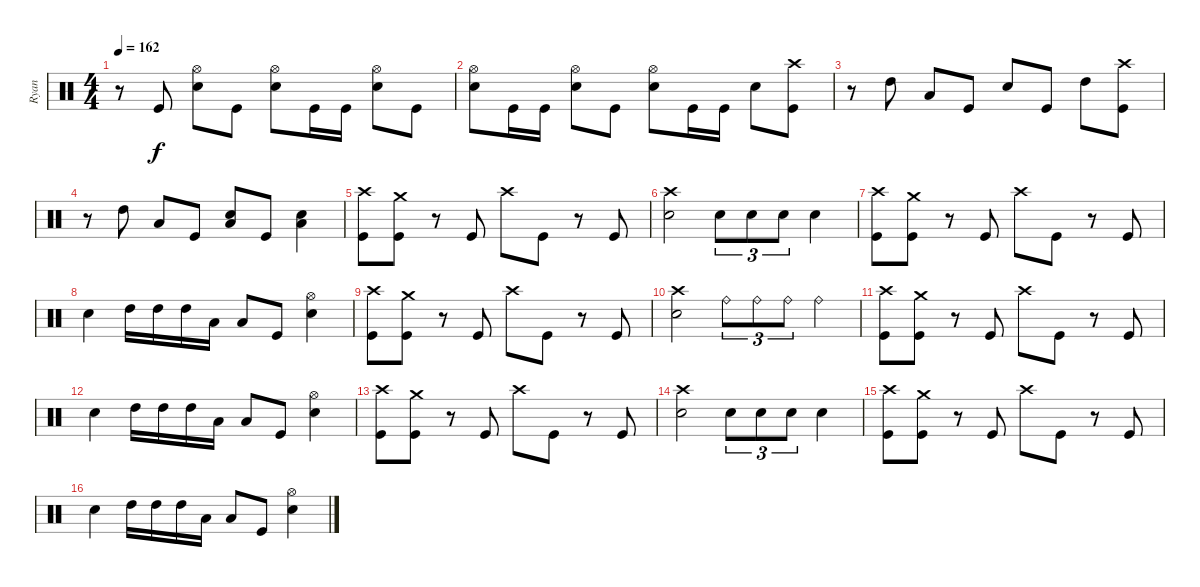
\track ("Ryan" "Ryan") {instrument percussion}
\staff {score}
\articulation defaults
\ts (4 4)
\tempo 162
\clef neutral
\ks c
r.8{dy f} "Kick (hit)".8 ("Hi-Hat (open)" "Electric Snare (hit)").8 "Kick (hit)".8 ("Hi-Hat (open)" "Electric Snare (hit)").8 "Kick (hit)".16 "Kick (hit)".16 ("Hi-Hat (open)" "Electric Snare (hit)").8 "Kick (hit)".8 |
("Hi-Hat (open)" "Electric Snare (hit)").8 "Kick (hit)".16 "Kick (hit)".16 ("Hi-Hat (open)" "Electric Snare (hit)").8 "Kick (hit)".8 ("Hi-Hat (open)" "Electric Snare (hit)").8 "Kick (hit)".16 "Kick (hit)".16 "Electric Snare (hit)".8 ("Crash high (hit)" "Kick (hit)").8 |
r.8 "High Tom (hit)".8 "Low Floor Tom (hit)".8 "Kick (hit)".8 "Electric Snare (hit)".8 "Kick (hit)".8 "High Tom (hit)".8 ("Crash high (hit)" "Kick (hit)").8 |
r.8 "High Tom (hit)".8 "Low Floor Tom (hit)".8 "Kick (hit)".8 ("Electric Snare (hit)" "Low Floor Tom (hit)").8 "Kick (hit)".8 ("Electric Snare (hit)" "Low Floor Tom (hit)").4 |
("Crash high (hit)" "Kick (hit)").8 ("Crash medium (hit)" "Kick (hit)").8 r.8 "Kick (hit)".8 "Crash high (hit)".8 "Kick (hit)".8 r.8 "Kick (hit)".8 |
("Crash high (hit)" "Electric Snare (hit)").2 "Electric Snare (hit)".8{tu (3 2)} "Electric Snare (hit)".8{tu (3 2)} "Electric Snare (hit)".8{tu (3 2)} "Electric Snare (hit)".4 |
("Crash high (hit)" "Kick (hit)").8 ("Crash medium (hit)" "Kick (hit)").8 r.8 "Kick (hit)".8 "Crash high (hit)".8 "Kick (hit)".8 r.8 "Kick (hit)".8 |
"Electric Snare (hit)".4 "High Tom (hit)".16 "High Tom (hit)".16 "High Tom (hit)".16 "Low Floor Tom (hit)".16 "Low Floor Tom (hit)".8 "Kick (hit)".8 ("Hi-Hat (open)" "Electric Snare (hit)").4 |
("Crash high (hit)" "Kick (hit)").8 ("Crash medium (hit)" "Kick (hit)").8 r.8 "Kick (hit)".8 "Crash high (hit)".8 "Kick (hit)".8 r.8 "Kick (hit)".8 |
("Crash high (hit)" "Electric Snare (hit)").2 "Ride (bell)".8{tu (3 2)} "Ride (bell)".8{tu (3 2)} "Ride (bell)".8{tu (3 2)} "Ride (bell)".4 |
("Crash high (hit)" "Kick (hit)").8 ("Crash medium (hit)" "Kick (hit)").8 r.8 "Kick (hit)".8 "Crash high (hit)".8 "Kick (hit)".8 r.8 "Kick (hit)".8 |
"Electric Snare (hit)".4 "High Tom (hit)".16 "High Tom (hit)".16 "High Tom (hit)".16 "Low Floor Tom (hit)".16 "Low Floor Tom (hit)".8 "Kick (hit)".8 ("Hi-Hat (open)" "Electric Snare (hit)").4 |
("Crash high (hit)" "Kick (hit)").8 ("Crash medium (hit)" "Kick (hit)").8 r.8 "Kick (hit)".8 "Crash high (hit)".8 "Kick (hit)".8 r.8 "Kick (hit)".8 |
("Crash high (hit)" "Electric Snare (hit)").2 "Electric Snare (hit)".8{tu (3 2)} "Electric Snare (hit)".8{tu (3 2)} "Electric Snare (hit)".8{tu (3 2)} "Electric Snare (hit)".4 |
("Crash high (hit)" "Kick (hit)").8 ("Crash medium (hit)" "Kick (hit)").8 r.8 "Kick (hit)".8 "Crash high (hit)".8 "Kick (hit)".8 r.8 "Kick (hit)".8 |
"Electric Snare (hit)".4 "High Tom (hit)".16 "High Tom (hit)".16 "High Tom (hit)".16 "Low Floor Tom (hit)".16 "Low Floor Tom (hit)".8 "Kick (hit)".8 ("Hi-Hat (open)" "Electric Snare (hit)").4
